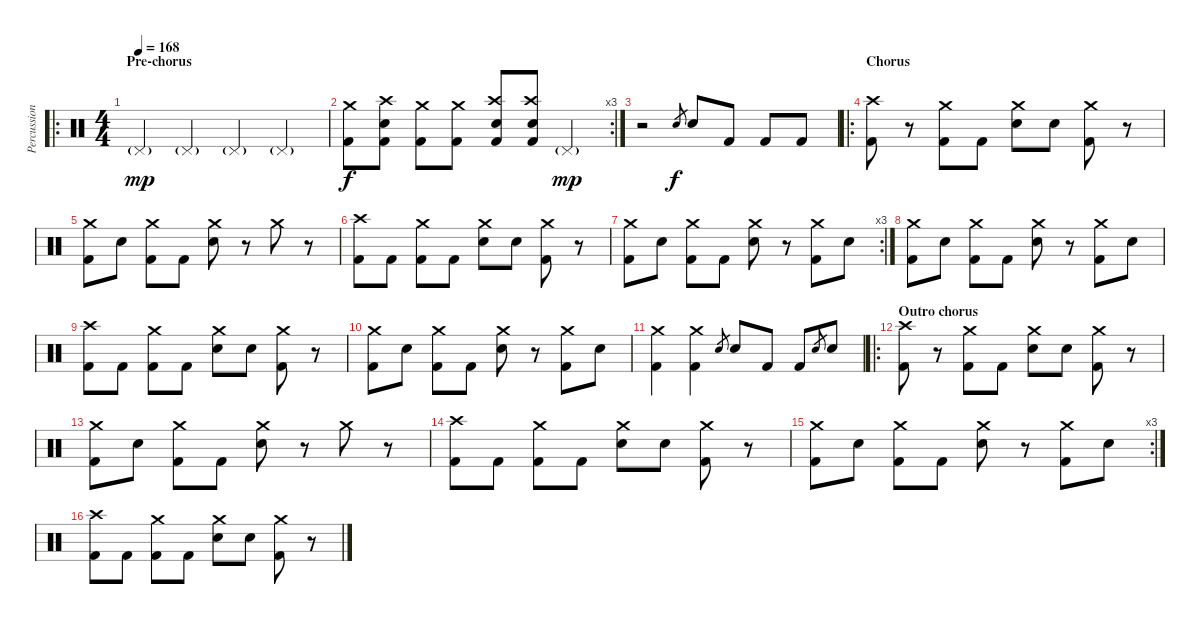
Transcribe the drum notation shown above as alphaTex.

\track ("Percussion" "Percussion") {instrument percussion}
\staff {score}
\articulation defaults
\ro
\ts (4 4)
\section ("" "Pre-chorus")
\tempo 168
\clef neutral
\ks c "Pedal Hi-Hat (hit)"{g}.4{dy mp} "Pedal Hi-Hat (hit)"{g}.4 "Pedal Hi-Hat (hit)"{g}.4 "Pedal Hi-Hat (hit)"{g}.4
|
\rc 3
("Crash medium (hit)" "Kick (hit) 2").8{dy f} ("Crash high (hit)" "Electric Snare (hit)" "Kick (hit) 2").8 ("Crash medium (hit)" "Kick (hit) 2").8 ("Crash medium (hit)" "Kick (hit) 2").8 ("Crash high (hit)" "Electric Snare (hit)" "Kick (hit) 2").8 ("Crash high (hit)" "Electric Snare (hit)" "Kick (hit) 2").8 "Pedal Hi-Hat (hit)"{g}.4{dy mp} |
r.2 "Electric Snare (hit)".8{gr dy f} "Electric Snare (hit)".8 "Kick (hit) 2".8 "Kick (hit) 2".8 "Kick (hit) 2".8 |
\ro
\section ("" "Chorus")
("Crash high (hit)" "Kick (hit) 2").8 r.8 ("Crash medium (hit)" "Kick (hit) 2").8 "Kick (hit) 2".8 ("Crash medium (hit)" "Electric Snare (hit)").8 "Electric Snare (hit)".8 ("Crash medium (hit)" "Kick (hit) 2").8 r.8 |
("Crash medium (hit)" "Kick (hit) 2").8 "Electric Snare (hit)".8 ("Crash medium (hit)" "Kick (hit) 2").8 "Kick (hit) 2".8 ("Crash medium (hit)" "Electric Snare (hit)").8 r.8 "Crash medium (hit)".8 r.8 |
("Crash high (hit)" "Kick (hit) 2").8 "Kick (hit) 2".8 ("Crash medium (hit)" "Kick (hit) 2").8 "Kick (hit) 2".8 ("Crash medium (hit)" "Electric Snare (hit)").8 "Electric Snare (hit)".8 ("Crash medium (hit)" "Kick (hit) 2").8 r.8 |
\rc 3
("Crash medium (hit)" "Kick (hit) 2").8 "Electric Snare (hit)".8 ("Crash medium (hit)" "Kick (hit) 2").8 "Kick (hit) 2".8 ("Crash medium (hit)" "Electric Snare (hit)").8 r.8 ("Crash medium (hit)" "Kick (hit) 2").8 "Electric Snare (hit)".8 |
("Crash medium (hit)" "Kick (hit) 2").8 "Electric Snare (hit)".8 ("Crash medium (hit)" "Kick (hit) 2").8 "Kick (hit) 2".8 ("Crash medium (hit)" "Electric Snare (hit)").8 r.8 ("Crash medium (hit)" "Kick (hit) 2").8 "Electric Snare (hit)".8 |
("Crash high (hit)" "Kick (hit) 2").8 "Kick (hit) 2".8 ("Crash medium (hit)" "Kick (hit) 2").8 "Kick (hit) 2".8 ("Crash medium (hit)" "Electric Snare (hit)").8 "Electric Snare (hit)".8 ("Crash medium (hit)" "Kick (hit) 2").8 r.8 |
("Crash medium (hit)" "Kick (hit) 2").8 "Electric Snare (hit)".8 ("Crash medium (hit)" "Kick (hit) 2").8 "Kick (hit) 2".8 ("Crash medium (hit)" "Electric Snare (hit)").8 r.8 ("Crash medium (hit)" "Kick (hit) 2").8 "Electric Snare (hit)".8 |
("Crash medium (hit)" "Kick (hit) 2").4 ("Crash medium (hit)" "Kick (hit) 2").4 "Electric Snare (hit)".8{gr} "Electric Snare (hit)".8 "Kick (hit) 2".8 "Kick (hit) 2".8 "Electric Snare (hit)".8{gr} "Electric Snare (hit)".8 |
\ro
\section ("" "Outro chorus")
("Crash high (hit)" "Kick (hit) 2").8 r.8 ("Crash medium (hit)" "Kick (hit) 2").8 "Kick (hit) 2".8 ("Crash medium (hit)" "Electric Snare (hit)").8 "Electric Snare (hit)".8 ("Crash medium (hit)" "Kick (hit) 2").8 r.8 |
("Crash medium (hit)" "Kick (hit) 2").8 "Electric Snare (hit)".8 ("Crash medium (hit)" "Kick (hit) 2").8 "Kick (hit) 2".8 ("Crash medium (hit)" "Electric Snare (hit)").8 r.8 "Crash medium (hit)".8 r.8 |
("Crash high (hit)" "Kick (hit) 2").8 "Kick (hit) 2".8 ("Crash medium (hit)" "Kick (hit) 2").8 "Kick (hit) 2".8 ("Crash medium (hit)" "Electric Snare (hit)").8 "Electric Snare (hit)".8 ("Crash medium (hit)" "Kick (hit) 2").8 r.8 |
\rc 3
("Crash medium (hit)" "Kick (hit) 2").8 "Electric Snare (hit)".8 ("Crash medium (hit)" "Kick (hit) 2").8 "Kick (hit) 2".8 ("Crash medium (hit)" "Electric Snare (hit)").8 r.8 ("Crash medium (hit)" "Kick (hit) 2").8 "Electric Snare (hit)".8 |
("Crash high (hit)" "Kick (hit) 2").8 "Kick (hit) 2".8 ("Crash medium (hit)" "Kick (hit) 2").8 "Kick (hit) 2".8 ("Crash medium (hit)" "Electric Snare (hit)").8 "Electric Snare (hit)".8 ("Crash medium (hit)" "Kick (hit) 2").8 r.8
